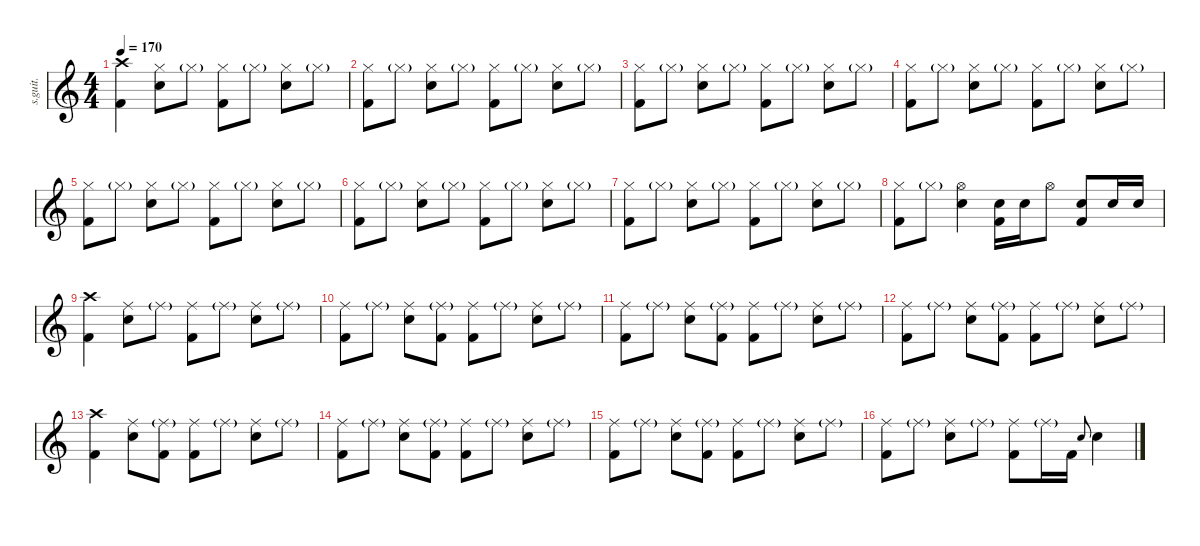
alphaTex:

\defaultSystemsLayout 4
\hideDynamics
\bracketExtendMode nobrackets
\track ("Drumkit" "s.guit.") {instrument percussion}
\staff {score}
\articulation defaults
\ts (4 4)
\tempo 170
\clef g2
\ks c
("Crash high (hit)" "Kick (hit) 2").4{lyrics (0 "") lyrics (1 "") lyrics (2 "") lyrics (3 "") lyrics (4 "") dy ff} ("Hi-Hat (closed)" "Snare (hit) 2").8{lyrics (0 "") lyrics (1 "") lyrics (2 "") lyrics (3 "") lyrics (4 "")} "Hi-Hat (closed)"{g}.8{lyrics (0 "") lyrics (1 "") lyrics (2 "") lyrics (3 "") lyrics (4 "")} ("Hi-Hat (closed)" "Kick (hit) 2").8{lyrics (0 "") lyrics (1 "") lyrics (2 "") lyrics (3 "") lyrics (4 "")} "Hi-Hat (closed)"{g}.8{lyrics (0 "") lyrics (1 "") lyrics (2 "") lyrics (3 "") lyrics (4 "")} ("Hi-Hat (closed)" "Snare (hit) 2").8{lyrics (0 "") lyrics (1 "") lyrics (2 "") lyrics (3 "") lyrics (4 "")} "Hi-Hat (closed)"{g}.8{lyrics (0 "") lyrics (1 "") lyrics (2 "") lyrics (3 "") lyrics (4 "")} |
("Hi-Hat (closed)" "Kick (hit) 2").8{lyrics (0 "") lyrics (1 "") lyrics (2 "") lyrics (3 "") lyrics (4 "")} "Hi-Hat (closed)"{g}.8{lyrics (0 "") lyrics (1 "") lyrics (2 "") lyrics (3 "") lyrics (4 "")} ("Hi-Hat (closed)" "Snare (hit) 2").8{lyrics (0 "") lyrics (1 "") lyrics (2 "") lyrics (3 "") lyrics (4 "")} "Hi-Hat (closed)"{g}.8{lyrics (0 "") lyrics (1 "") lyrics (2 "") lyrics (3 "") lyrics (4 "")} ("Hi-Hat (closed)" "Kick (hit) 2").8{lyrics (0 "") lyrics (1 "") lyrics (2 "") lyrics (3 "") lyrics (4 "")} "Hi-Hat (closed)"{g}.8{lyrics (0 "") lyrics (1 "") lyrics (2 "") lyrics (3 "") lyrics (4 "")} ("Hi-Hat (closed)" "Snare (hit) 2").8{lyrics (0 "") lyrics (1 "") lyrics (2 "") lyrics (3 "") lyrics (4 "")} "Hi-Hat (closed)"{g}.8{lyrics (0 "") lyrics (1 "") lyrics (2 "") lyrics (3 "") lyrics (4 "")} |
("Hi-Hat (closed)" "Kick (hit) 2").8{lyrics (0 "") lyrics (1 "") lyrics (2 "") lyrics (3 "") lyrics (4 "")} "Hi-Hat (closed)"{g}.8{lyrics (0 "") lyrics (1 "") lyrics (2 "") lyrics (3 "") lyrics (4 "")} ("Hi-Hat (closed)" "Snare (hit) 2").8{lyrics (0 "") lyrics (1 "") lyrics (2 "") lyrics (3 "") lyrics (4 "")} "Hi-Hat (closed)"{g}.8{lyrics (0 "") lyrics (1 "") lyrics (2 "") lyrics (3 "") lyrics (4 "")} ("Hi-Hat (closed)" "Kick (hit) 2").8{lyrics (0 "") lyrics (1 "") lyrics (2 "") lyrics (3 "") lyrics (4 "")} "Hi-Hat (closed)"{g}.8{lyrics (0 "") lyrics (1 "") lyrics (2 "") lyrics (3 "") lyrics (4 "")} ("Hi-Hat (closed)" "Snare (hit) 2").8{lyrics (0 "") lyrics (1 "") lyrics (2 "") lyrics (3 "") lyrics (4 "")} "Hi-Hat (closed)"{g}.8{lyrics (0 "") lyrics (1 "") lyrics (2 "") lyrics (3 "") lyrics (4 "")} |
("Hi-Hat (closed)" "Kick (hit) 2").8{lyrics (0 "") lyrics (1 "") lyrics (2 "") lyrics (3 "") lyrics (4 "")} "Hi-Hat (closed)"{g}.8{lyrics (0 "") lyrics (1 "") lyrics (2 "") lyrics (3 "") lyrics (4 "")} ("Hi-Hat (closed)" "Snare (hit) 2").8{lyrics (0 "") lyrics (1 "") lyrics (2 "") lyrics (3 "") lyrics (4 "")} "Hi-Hat (closed)"{g}.8{lyrics (0 "") lyrics (1 "") lyrics (2 "") lyrics (3 "") lyrics (4 "")} ("Hi-Hat (closed)" "Kick (hit) 2").8{lyrics (0 "") lyrics (1 "") lyrics (2 "") lyrics (3 "") lyrics (4 "")} "Hi-Hat (closed)"{g}.8{lyrics (0 "") lyrics (1 "") lyrics (2 "") lyrics (3 "") lyrics (4 "")} ("Hi-Hat (closed)" "Snare (hit) 2").8{lyrics (0 "") lyrics (1 "") lyrics (2 "") lyrics (3 "") lyrics (4 "")} "Hi-Hat (closed)"{g}.8{lyrics (0 "") lyrics (1 "") lyrics (2 "") lyrics (3 "") lyrics (4 "")} |
("Hi-Hat (closed)" "Kick (hit) 2").8{lyrics (0 "") lyrics (1 "") lyrics (2 "") lyrics (3 "") lyrics (4 "")} "Hi-Hat (closed)"{g}.8{lyrics (0 "") lyrics (1 "") lyrics (2 "") lyrics (3 "") lyrics (4 "")} ("Hi-Hat (closed)" "Snare (hit) 2").8{lyrics (0 "") lyrics (1 "") lyrics (2 "") lyrics (3 "") lyrics (4 "")} "Hi-Hat (closed)"{g}.8{lyrics (0 "") lyrics (1 "") lyrics (2 "") lyrics (3 "") lyrics (4 "")} ("Hi-Hat (closed)" "Kick (hit) 2").8{lyrics (0 "") lyrics (1 "") lyrics (2 "") lyrics (3 "") lyrics (4 "")} "Hi-Hat (closed)"{g}.8{lyrics (0 "") lyrics (1 "") lyrics (2 "") lyrics (3 "") lyrics (4 "")} ("Hi-Hat (closed)" "Snare (hit) 2").8{lyrics (0 "") lyrics (1 "") lyrics (2 "") lyrics (3 "") lyrics (4 "")} "Hi-Hat (closed)"{g}.8{lyrics (0 "") lyrics (1 "") lyrics (2 "") lyrics (3 "") lyrics (4 "")} |
("Hi-Hat (closed)" "Kick (hit) 2").8{lyrics (0 "") lyrics (1 "") lyrics (2 "") lyrics (3 "") lyrics (4 "")} "Hi-Hat (closed)"{g}.8{lyrics (0 "") lyrics (1 "") lyrics (2 "") lyrics (3 "") lyrics (4 "")} ("Hi-Hat (closed)" "Snare (hit) 2").8{lyrics (0 "") lyrics (1 "") lyrics (2 "") lyrics (3 "") lyrics (4 "")} "Hi-Hat (closed)"{g}.8{lyrics (0 "") lyrics (1 "") lyrics (2 "") lyrics (3 "") lyrics (4 "")} ("Hi-Hat (closed)" "Kick (hit) 2").8{lyrics (0 "") lyrics (1 "") lyrics (2 "") lyrics (3 "") lyrics (4 "")} "Hi-Hat (closed)"{g}.8{lyrics (0 "") lyrics (1 "") lyrics (2 "") lyrics (3 "") lyrics (4 "")} ("Hi-Hat (closed)" "Snare (hit) 2").8{lyrics (0 "") lyrics (1 "") lyrics (2 "") lyrics (3 "") lyrics (4 "")} "Hi-Hat (closed)"{g}.8{lyrics (0 "") lyrics (1 "") lyrics (2 "") lyrics (3 "") lyrics (4 "")} |
("Hi-Hat (closed)" "Kick (hit) 2").8{lyrics (0 "") lyrics (1 "") lyrics (2 "") lyrics (3 "") lyrics (4 "")} "Hi-Hat (closed)"{g}.8{lyrics (0 "") lyrics (1 "") lyrics (2 "") lyrics (3 "") lyrics (4 "")} ("Hi-Hat (closed)" "Snare (hit) 2").8{lyrics (0 "") lyrics (1 "") lyrics (2 "") lyrics (3 "") lyrics (4 "")} "Hi-Hat (closed)"{g}.8{lyrics (0 "") lyrics (1 "") lyrics (2 "") lyrics (3 "") lyrics (4 "")} ("Hi-Hat (closed)" "Kick (hit) 2").8{lyrics (0 "") lyrics (1 "") lyrics (2 "") lyrics (3 "") lyrics (4 "")} "Hi-Hat (closed)"{g}.8{lyrics (0 "") lyrics (1 "") lyrics (2 "") lyrics (3 "") lyrics (4 "")} ("Hi-Hat (closed)" "Snare (hit) 2").8{lyrics (0 "") lyrics (1 "") lyrics (2 "") lyrics (3 "") lyrics (4 "")} "Hi-Hat (closed)"{g}.8{lyrics (0 "") lyrics (1 "") lyrics (2 "") lyrics (3 "") lyrics (4 "")} |
("Hi-Hat (closed)" "Kick (hit) 2").8{lyrics (0 "") lyrics (1 "") lyrics (2 "") lyrics (3 "") lyrics (4 "")} "Hi-Hat (closed)"{g}.8{lyrics (0 "") lyrics (1 "") lyrics (2 "") lyrics (3 "") lyrics (4 "")} ("Hi-Hat (open)" "Snare (hit) 2").4{lyrics (0 "") lyrics (1 "") lyrics (2 "") lyrics (3 "") lyrics (4 "")} ("Snare (hit) 2" "Kick (hit) 2").16{lyrics (0 "") lyrics (1 "") lyrics (2 "") lyrics (3 "") lyrics (4 "")} "Snare (hit) 2".16{lyrics (0 "") lyrics (1 "") lyrics (2 "") lyrics (3 "") lyrics (4 "")} "Hi-Hat (open)".8{lyrics (0 "") lyrics (1 "") lyrics (2 "") lyrics (3 "") lyrics (4 "")} ("Snare (hit) 2" "Kick (hit) 2").8{lyrics (0 "") lyrics (1 "") lyrics (2 "") lyrics (3 "") lyrics (4 "")} "Snare (hit) 2".16{lyrics (0 "") lyrics (1 "") lyrics (2 "") lyrics (3 "") lyrics (4 "")} "Snare (hit) 2".16{lyrics (0 "") lyrics (1 "") lyrics (2 "") lyrics (3 "") lyrics (4 "")} |
("Crash high (hit)" "Kick (hit) 2").4{lyrics (0 "") lyrics (1 "") lyrics (2 "") lyrics (3 "") lyrics (4 "")} ("Ride (middle)" "Snare (hit) 2").8{lyrics (0 "") lyrics (1 "") lyrics (2 "") lyrics (3 "") lyrics (4 "")} "Ride (middle)"{g}.8{lyrics (0 "") lyrics (1 "") lyrics (2 "") lyrics (3 "") lyrics (4 "")} ("Ride (middle)" "Kick (hit) 2").8{lyrics (0 "") lyrics (1 "") lyrics (2 "") lyrics (3 "") lyrics (4 "")} "Ride (middle)"{g}.8{lyrics (0 "") lyrics (1 "") lyrics (2 "") lyrics (3 "") lyrics (4 "")} ("Ride (middle)" "Snare (hit) 2").8{lyrics (0 "") lyrics (1 "") lyrics (2 "") lyrics (3 "") lyrics (4 "")} "Ride (middle)"{g}.8{lyrics (0 "") lyrics (1 "") lyrics (2 "") lyrics (3 "") lyrics (4 "")} |
("Ride (middle)" "Kick (hit) 2").8{lyrics (0 "") lyrics (1 "") lyrics (2 "") lyrics (3 "") lyrics (4 "")} "Ride (middle)"{g}.8{lyrics (0 "") lyrics (1 "") lyrics (2 "") lyrics (3 "") lyrics (4 "")} ("Ride (middle)" "Snare (hit) 2").8{lyrics (0 "") lyrics (1 "") lyrics (2 "") lyrics (3 "") lyrics (4 "")} ("Ride (middle)"{g} "Kick (hit) 2").8{lyrics (0 "") lyrics (1 "") lyrics (2 "") lyrics (3 "") lyrics (4 "")} ("Ride (middle)" "Kick (hit) 2").8{lyrics (0 "") lyrics (1 "") lyrics (2 "") lyrics (3 "") lyrics (4 "")} "Ride (middle)"{g}.8{lyrics (0 "") lyrics (1 "") lyrics (2 "") lyrics (3 "") lyrics (4 "")} ("Ride (middle)" "Snare (hit) 2").8{lyrics (0 "") lyrics (1 "") lyrics (2 "") lyrics (3 "") lyrics (4 "")} "Ride (middle)"{g}.8{lyrics (0 "") lyrics (1 "") lyrics (2 "") lyrics (3 "") lyrics (4 "")} |
("Ride (middle)" "Kick (hit) 2").8{lyrics (0 "") lyrics (1 "") lyrics (2 "") lyrics (3 "") lyrics (4 "")} "Ride (middle)"{g}.8{lyrics (0 "") lyrics (1 "") lyrics (2 "") lyrics (3 "") lyrics (4 "")} ("Ride (middle)" "Snare (hit) 2").8{lyrics (0 "") lyrics (1 "") lyrics (2 "") lyrics (3 "") lyrics (4 "")} ("Ride (middle)"{g} "Kick (hit) 2").8{lyrics (0 "") lyrics (1 "") lyrics (2 "") lyrics (3 "") lyrics (4 "")} ("Ride (middle)" "Kick (hit) 2").8{lyrics (0 "") lyrics (1 "") lyrics (2 "") lyrics (3 "") lyrics (4 "")} "Ride (middle)"{g}.8{lyrics (0 "") lyrics (1 "") lyrics (2 "") lyrics (3 "") lyrics (4 "")} ("Ride (middle)" "Snare (hit) 2").8{lyrics (0 "") lyrics (1 "") lyrics (2 "") lyrics (3 "") lyrics (4 "")} "Ride (middle)"{g}.8{lyrics (0 "") lyrics (1 "") lyrics (2 "") lyrics (3 "") lyrics (4 "")} |
("Ride (middle)" "Kick (hit) 2").8{lyrics (0 "") lyrics (1 "") lyrics (2 "") lyrics (3 "") lyrics (4 "")} "Ride (middle)"{g}.8{lyrics (0 "") lyrics (1 "") lyrics (2 "") lyrics (3 "") lyrics (4 "")} ("Ride (middle)" "Snare (hit) 2").8{lyrics (0 "") lyrics (1 "") lyrics (2 "") lyrics (3 "") lyrics (4 "")} ("Ride (middle)"{g} "Kick (hit) 2").8{lyrics (0 "") lyrics (1 "") lyrics (2 "") lyrics (3 "") lyrics (4 "")} ("Ride (middle)" "Kick (hit) 2").8{lyrics (0 "") lyrics (1 "") lyrics (2 "") lyrics (3 "") lyrics (4 "")} "Ride (middle)"{g}.8{lyrics (0 "") lyrics (1 "") lyrics (2 "") lyrics (3 "") lyrics (4 "")} ("Ride (middle)" "Snare (hit) 2").8{lyrics (0 "") lyrics (1 "") lyrics (2 "") lyrics (3 "") lyrics (4 "")} "Ride (middle)"{g}.8{lyrics (0 "") lyrics (1 "") lyrics (2 "") lyrics (3 "") lyrics (4 "")} |
("Crash high (hit)" "Kick (hit) 2").4{lyrics (0 "") lyrics (1 "") lyrics (2 "") lyrics (3 "") lyrics (4 "")} ("Ride (middle)" "Snare (hit) 2").8{lyrics (0 "") lyrics (1 "") lyrics (2 "") lyrics (3 "") lyrics (4 "")} ("Ride (middle)"{g} "Kick (hit) 2").8{lyrics (0 "") lyrics (1 "") lyrics (2 "") lyrics (3 "") lyrics (4 "")} ("Ride (middle)" "Kick (hit) 2").8{lyrics (0 "") lyrics (1 "") lyrics (2 "") lyrics (3 "") lyrics (4 "")} "Ride (middle)"{g}.8{lyrics (0 "") lyrics (1 "") lyrics (2 "") lyrics (3 "") lyrics (4 "")} ("Ride (middle)" "Snare (hit) 2").8{lyrics (0 "") lyrics (1 "") lyrics (2 "") lyrics (3 "") lyrics (4 "")} "Ride (middle)"{g}.8{lyrics (0 "") lyrics (1 "") lyrics (2 "") lyrics (3 "") lyrics (4 "")} |
("Ride (middle)" "Kick (hit) 2").8{lyrics (0 "") lyrics (1 "") lyrics (2 "") lyrics (3 "") lyrics (4 "")} "Ride (middle)"{g}.8{lyrics (0 "") lyrics (1 "") lyrics (2 "") lyrics (3 "") lyrics (4 "")} ("Ride (middle)" "Snare (hit) 2").8{lyrics (0 "") lyrics (1 "") lyrics (2 "") lyrics (3 "") lyrics (4 "")} ("Ride (middle)"{g} "Kick (hit) 2").8{lyrics (0 "") lyrics (1 "") lyrics (2 "") lyrics (3 "") lyrics (4 "")} ("Ride (middle)" "Kick (hit) 2").8{lyrics (0 "") lyrics (1 "") lyrics (2 "") lyrics (3 "") lyrics (4 "")} "Ride (middle)"{g}.8{lyrics (0 "") lyrics (1 "") lyrics (2 "") lyrics (3 "") lyrics (4 "")} ("Ride (middle)" "Snare (hit) 2").8{lyrics (0 "") lyrics (1 "") lyrics (2 "") lyrics (3 "") lyrics (4 "")} "Ride (middle)"{g}.8{lyrics (0 "") lyrics (1 "") lyrics (2 "") lyrics (3 "") lyrics (4 "")} |
("Ride (middle)" "Kick (hit) 2").8{lyrics (0 "") lyrics (1 "") lyrics (2 "") lyrics (3 "") lyrics (4 "")} "Ride (middle)"{g}.8{lyrics (0 "") lyrics (1 "") lyrics (2 "") lyrics (3 "") lyrics (4 "")} ("Ride (middle)" "Snare (hit) 2").8{lyrics (0 "") lyrics (1 "") lyrics (2 "") lyrics (3 "") lyrics (4 "")} ("Ride (middle)"{g} "Kick (hit) 2").8{lyrics (0 "") lyrics (1 "") lyrics (2 "") lyrics (3 "") lyrics (4 "")} ("Ride (middle)" "Kick (hit) 2").8{lyrics (0 "") lyrics (1 "") lyrics (2 "") lyrics (3 "") lyrics (4 "")} "Ride (middle)"{g}.8{lyrics (0 "") lyrics (1 "") lyrics (2 "") lyrics (3 "") lyrics (4 "")} ("Ride (middle)" "Snare (hit) 2").8{lyrics (0 "") lyrics (1 "") lyrics (2 "") lyrics (3 "") lyrics (4 "")} "Ride (middle)"{g}.8{lyrics (0 "") lyrics (1 "") lyrics (2 "") lyrics (3 "") lyrics (4 "")} |
("Ride (middle)" "Kick (hit) 2").8{lyrics (0 "") lyrics (1 "") lyrics (2 "") lyrics (3 "") lyrics (4 "")} "Ride (middle)"{g}.8{lyrics (0 "") lyrics (1 "") lyrics (2 "") lyrics (3 "") lyrics (4 "")} ("Ride (middle)" "Snare (hit) 2").8{lyrics (0 "") lyrics (1 "") lyrics (2 "") lyrics (3 "") lyrics (4 "")} "Ride (middle)"{g}.8{lyrics (0 "") lyrics (1 "") lyrics (2 "") lyrics (3 "") lyrics (4 "")} ("Ride (middle)" "Kick (hit) 2").8{lyrics (0 "") lyrics (1 "") lyrics (2 "") lyrics (3 "") lyrics (4 "")} "Ride (middle)"{g}.16{lyrics (0 "") lyrics (1 "") lyrics (2 "") lyrics (3 "") lyrics (4 "")} "Kick (hit) 2".16{lyrics (0 "") lyrics (1 "") lyrics (2 "") lyrics (3 "") lyrics (4 "")} "Snare (hit) 2".8{lyrics (0 "") lyrics (1 "") lyrics (2 "") lyrics (3 "") lyrics (4 "") gr onbeat} "Snare (hit) 2".4{lyrics (0 "") lyrics (1 "") lyrics (2 "") lyrics (3 "") lyrics (4 "")}
